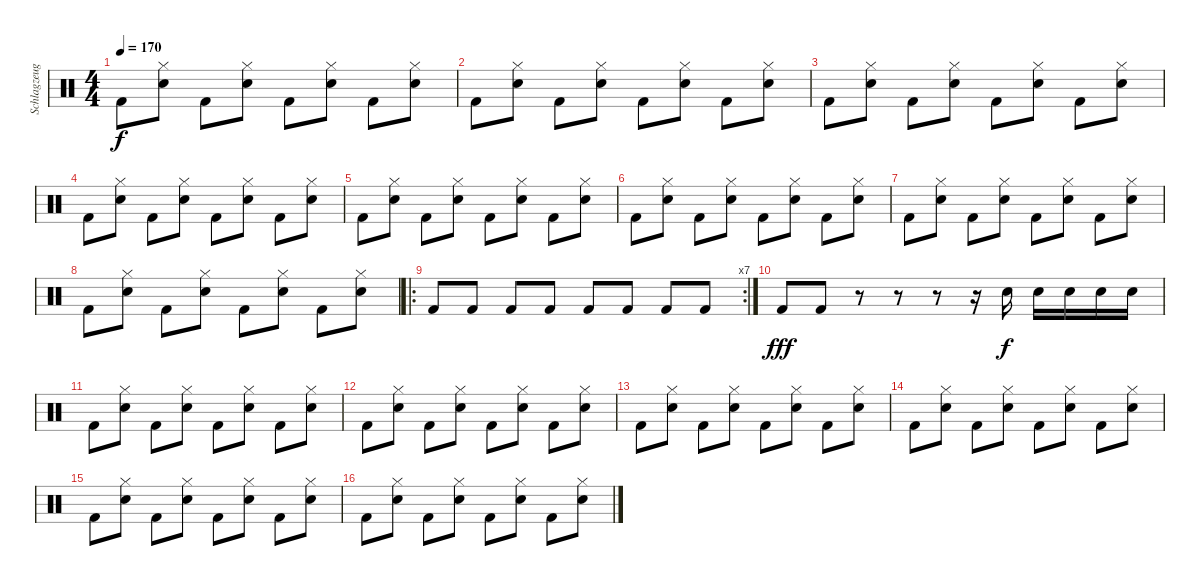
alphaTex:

\track ("Schlagzeug (Bela)" "Schlagzeug") {instrument percussion}
\staff {score}
\articulation defaults
\ts (4 4)
\tempo 170
\clef neutral
\ks c "Kick (hit) 2".8{dy f}
("Hi-Hat (closed)" "Snare (hit) 2").8 "Kick (hit) 2".8 ("Hi-Hat (closed)" "Snare (hit) 2").8 "Kick (hit) 2".8 ("Hi-Hat (closed)" "Snare (hit) 2").8 "Kick (hit) 2".8 ("Hi-Hat (closed)" "Snare (hit) 2").8 |
"Kick (hit) 2".8 ("Hi-Hat (closed)" "Snare (hit) 2").8 "Kick (hit) 2".8 ("Hi-Hat (closed)" "Snare (hit) 2").8 "Kick (hit) 2".8 ("Hi-Hat (closed)" "Snare (hit) 2").8 "Kick (hit) 2".8 ("Hi-Hat (closed)" "Snare (hit) 2").8 |
"Kick (hit) 2".8 ("Hi-Hat (closed)" "Snare (hit) 2").8 "Kick (hit) 2".8 ("Hi-Hat (closed)" "Snare (hit) 2").8 "Kick (hit) 2".8 ("Hi-Hat (closed)" "Snare (hit) 2").8 "Kick (hit) 2".8 ("Hi-Hat (closed)" "Snare (hit) 2").8 |
"Kick (hit) 2".8 ("Hi-Hat (closed)" "Snare (hit) 2").8 "Kick (hit) 2".8 ("Hi-Hat (closed)" "Snare (hit) 2").8 "Kick (hit) 2".8 ("Hi-Hat (closed)" "Snare (hit) 2").8 "Kick (hit) 2".8 ("Hi-Hat (closed)" "Snare (hit) 2").8 |
"Kick (hit) 2".8 ("Hi-Hat (closed)" "Snare (hit) 2").8 "Kick (hit) 2".8 ("Hi-Hat (closed)" "Snare (hit) 2").8 "Kick (hit) 2".8 ("Hi-Hat (closed)" "Snare (hit) 2").8 "Kick (hit) 2".8 ("Hi-Hat (closed)" "Snare (hit) 2").8 |
"Kick (hit) 2".8 ("Hi-Hat (closed)" "Snare (hit) 2").8 "Kick (hit) 2".8 ("Hi-Hat (closed)" "Snare (hit) 2").8 "Kick (hit) 2".8 ("Hi-Hat (closed)" "Snare (hit) 2").8 "Kick (hit) 2".8 ("Hi-Hat (closed)" "Snare (hit) 2").8 |
"Kick (hit) 2".8 ("Hi-Hat (closed)" "Snare (hit) 2").8 "Kick (hit) 2".8 ("Hi-Hat (closed)" "Snare (hit) 2").8 "Kick (hit) 2".8 ("Hi-Hat (closed)" "Snare (hit) 2").8 "Kick (hit) 2".8 ("Hi-Hat (closed)" "Snare (hit) 2").8 |
"Kick (hit) 2".8 ("Hi-Hat (closed)" "Snare (hit) 2").8 "Kick (hit) 2".8 ("Hi-Hat (closed)" "Snare (hit) 2").8 "Kick (hit) 2".8 ("Hi-Hat (closed)" "Snare (hit) 2").8 "Kick (hit) 2".8 ("Hi-Hat (closed)" "Snare (hit) 2").8 |
\ro
\rc 7 "Kick (hit) 2".8 "Kick (hit) 2".8 "Kick (hit) 2".8 "Kick (hit) 2".8 "Kick (hit) 2".8 "Kick (hit) 2".8 "Kick (hit) 2".8 "Kick (hit) 2".8
|
"Kick (hit) 2".8{dy fff} "Kick (hit) 2".8 r.8 r.8 r.8 r.16 "Snare (hit) 2".16{dy f} "Snare (hit) 2".16 "Snare (hit) 2".16 "Snare (hit) 2".16 "Snare (hit) 2".16 |
"Kick (hit) 2".8 ("Hi-Hat (closed)" "Snare (hit) 2").8 "Kick (hit) 2".8 ("Hi-Hat (closed)" "Snare (hit) 2").8 "Kick (hit) 2".8 ("Hi-Hat (closed)" "Snare (hit) 2").8 "Kick (hit) 2".8 ("Hi-Hat (closed)" "Snare (hit) 2").8 |
"Kick (hit) 2".8 ("Hi-Hat (closed)" "Snare (hit) 2").8 "Kick (hit) 2".8 ("Hi-Hat (closed)" "Snare (hit) 2").8 "Kick (hit) 2".8 ("Hi-Hat (closed)" "Snare (hit) 2").8 "Kick (hit) 2".8 ("Hi-Hat (closed)" "Snare (hit) 2").8 |
"Kick (hit) 2".8 ("Hi-Hat (closed)" "Snare (hit) 2").8 "Kick (hit) 2".8 ("Hi-Hat (closed)" "Snare (hit) 2").8 "Kick (hit) 2".8 ("Hi-Hat (closed)" "Snare (hit) 2").8 "Kick (hit) 2".8 ("Hi-Hat (closed)" "Snare (hit) 2").8 |
"Kick (hit) 2".8 ("Hi-Hat (closed)" "Snare (hit) 2").8 "Kick (hit) 2".8 ("Hi-Hat (closed)" "Snare (hit) 2").8 "Kick (hit) 2".8 ("Hi-Hat (closed)" "Snare (hit) 2").8 "Kick (hit) 2".8 ("Hi-Hat (closed)" "Snare (hit) 2").8 |
"Kick (hit) 2".8 ("Hi-Hat (closed)" "Snare (hit) 2").8 "Kick (hit) 2".8 ("Hi-Hat (closed)" "Snare (hit) 2").8 "Kick (hit) 2".8 ("Hi-Hat (closed)" "Snare (hit) 2").8 "Kick (hit) 2".8 ("Hi-Hat (closed)" "Snare (hit) 2").8 |
"Kick (hit) 2".8 ("Hi-Hat (closed)" "Snare (hit) 2").8 "Kick (hit) 2".8 ("Hi-Hat (closed)" "Snare (hit) 2").8 "Kick (hit) 2".8 ("Hi-Hat (closed)" "Snare (hit) 2").8 "Kick (hit) 2".8 ("Hi-Hat (closed)" "Snare (hit) 2").8
